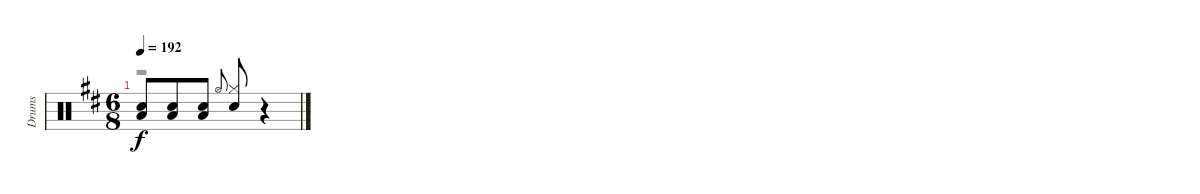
\track ("Drums" "Drums") {instrument percussion}
\staff {score}
\articulation defaults
\voice
\ts (6 8)
\tempo 192
\clef neutral
\ks d
("Snare (hit) 2" "Low Tom (hit)").8{dy f} ("Snare (hit) 2" "Low Tom (hit)").8 ("Snare (hit) 2" "Low Tom (hit)").8 "Hi-Hat (open)".8{gr onbeat} ("Hi-Hat (closed)" "Snare (hit) 2").8 r.4
\voice
\clef neutral
\ottava regular
\simile none
\ks d
r.2{dy fff} r.4
